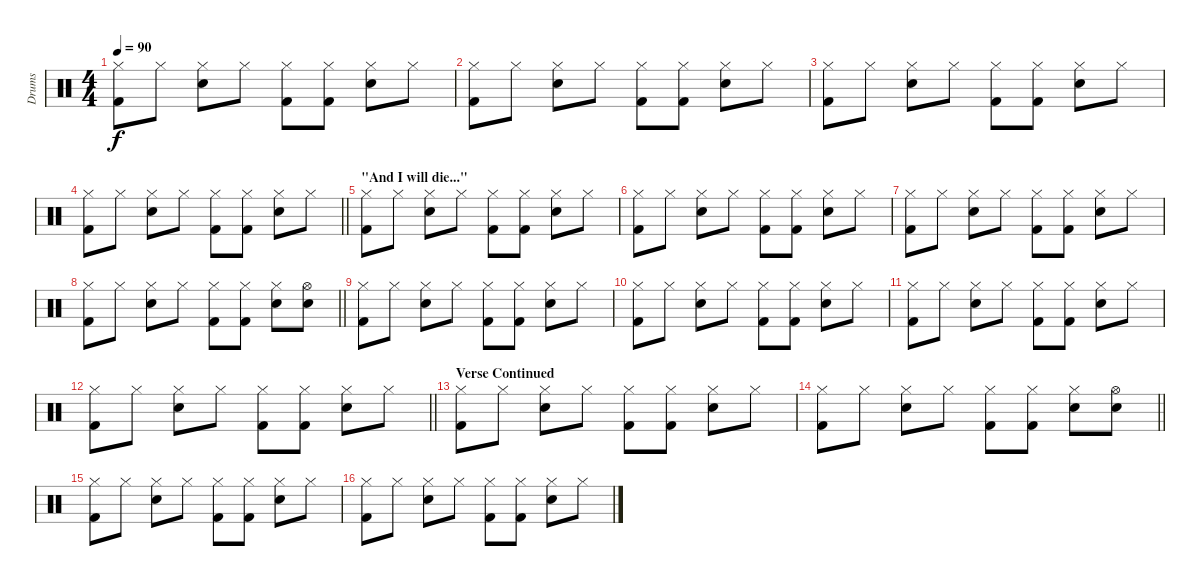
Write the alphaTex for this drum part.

\track ("Drums" "Drums") {instrument percussion}
\staff {score}
\articulation defaults
\ts (4 4)
\tempo 90
\clef neutral
\ks c
("Hi-Hat (closed)" "Kick (hit) 2").8{dy f} "Hi-Hat (closed)".8 ("Hi-Hat (closed)" "Electric Snare (hit)").8 "Hi-Hat (closed)".8 ("Hi-Hat (closed)" "Kick (hit) 2").8 ("Hi-Hat (closed)" "Kick (hit) 2").8 ("Hi-Hat (closed)" "Electric Snare (hit)").8 "Hi-Hat (closed)".8 |
("Hi-Hat (closed)" "Kick (hit) 2").8 "Hi-Hat (closed)".8 ("Hi-Hat (closed)" "Electric Snare (hit)").8 "Hi-Hat (closed)".8 ("Hi-Hat (closed)" "Kick (hit) 2").8 ("Hi-Hat (closed)" "Kick (hit) 2").8 ("Hi-Hat (closed)" "Electric Snare (hit)").8 "Hi-Hat (closed)".8 |
("Hi-Hat (closed)" "Kick (hit) 2").8 "Hi-Hat (closed)".8 ("Hi-Hat (closed)" "Electric Snare (hit)").8 "Hi-Hat (closed)".8 ("Hi-Hat (closed)" "Kick (hit) 2").8 ("Hi-Hat (closed)" "Kick (hit) 2").8 ("Hi-Hat (closed)" "Electric Snare (hit)").8 "Hi-Hat (closed)".8 |
\barLineRight lightlight
("Hi-Hat (closed)" "Kick (hit) 2").8 "Hi-Hat (closed)".8 ("Hi-Hat (closed)" "Electric Snare (hit)").8 "Hi-Hat (closed)".8 ("Hi-Hat (closed)" "Kick (hit) 2").8 ("Hi-Hat (closed)" "Kick (hit) 2").8 ("Hi-Hat (closed)" "Electric Snare (hit)").8 "Hi-Hat (closed)".8 |
\section ("" "\"And I will die...\"")
("Hi-Hat (closed)" "Kick (hit) 2").8 "Hi-Hat (closed)".8 ("Hi-Hat (closed)" "Electric Snare (hit)").8 "Hi-Hat (closed)".8 ("Hi-Hat (closed)" "Kick (hit) 2").8 ("Hi-Hat (closed)" "Kick (hit) 2").8 ("Hi-Hat (closed)" "Electric Snare (hit)").8 "Hi-Hat (closed)".8 |
("Hi-Hat (closed)" "Kick (hit) 2").8 "Hi-Hat (closed)".8 ("Hi-Hat (closed)" "Electric Snare (hit)").8 "Hi-Hat (closed)".8 ("Hi-Hat (closed)" "Kick (hit) 2").8 ("Hi-Hat (closed)" "Kick (hit) 2").8 ("Hi-Hat (closed)" "Electric Snare (hit)").8 "Hi-Hat (closed)".8 |
("Hi-Hat (closed)" "Kick (hit) 2").8 "Hi-Hat (closed)".8 ("Hi-Hat (closed)" "Electric Snare (hit)").8 "Hi-Hat (closed)".8 ("Hi-Hat (closed)" "Kick (hit) 2").8 ("Hi-Hat (closed)" "Kick (hit) 2").8 ("Hi-Hat (closed)" "Electric Snare (hit)").8 "Hi-Hat (closed)".8 |
\barLineRight lightlight
("Hi-Hat (closed)" "Kick (hit) 2").8 "Hi-Hat (closed)".8 ("Hi-Hat (closed)" "Electric Snare (hit)").8 "Hi-Hat (closed)".8 ("Hi-Hat (closed)" "Kick (hit) 2").8 ("Hi-Hat (closed)" "Kick (hit) 2").8 ("Hi-Hat (closed)" "Electric Snare (hit)").8 ("Hi-Hat (open)" "Electric Snare (hit)").8 |
("Hi-Hat (closed)" "Kick (hit) 2").8 "Hi-Hat (closed)".8 ("Hi-Hat (closed)" "Electric Snare (hit)").8 "Hi-Hat (closed)".8 ("Hi-Hat (closed)" "Kick (hit) 2").8 ("Hi-Hat (closed)" "Kick (hit) 2").8 ("Hi-Hat (closed)" "Electric Snare (hit)").8 "Hi-Hat (closed)".8 |
("Hi-Hat (closed)" "Kick (hit) 2").8 "Hi-Hat (closed)".8 ("Hi-Hat (closed)" "Electric Snare (hit)").8 "Hi-Hat (closed)".8 ("Hi-Hat (closed)" "Kick (hit) 2").8 ("Hi-Hat (closed)" "Kick (hit) 2").8 ("Hi-Hat (closed)" "Electric Snare (hit)").8 "Hi-Hat (closed)".8 |
("Hi-Hat (closed)" "Kick (hit) 2").8 "Hi-Hat (closed)".8 ("Hi-Hat (closed)" "Electric Snare (hit)").8 "Hi-Hat (closed)".8 ("Hi-Hat (closed)" "Kick (hit) 2").8 ("Hi-Hat (closed)" "Kick (hit) 2").8 ("Hi-Hat (closed)" "Electric Snare (hit)").8 "Hi-Hat (closed)".8 |
\barLineRight lightlight
("Hi-Hat (closed)" "Kick (hit) 2").8 "Hi-Hat (closed)".8 ("Hi-Hat (closed)" "Electric Snare (hit)").8 "Hi-Hat (closed)".8 ("Hi-Hat (closed)" "Kick (hit) 2").8 ("Hi-Hat (closed)" "Kick (hit) 2").8 ("Hi-Hat (closed)" "Electric Snare (hit)").8 "Hi-Hat (closed)".8 |
\section ("" "Verse Continued")
("Hi-Hat (closed)" "Kick (hit) 2").8 "Hi-Hat (closed)".8 ("Hi-Hat (closed)" "Electric Snare (hit)").8 "Hi-Hat (closed)".8 ("Hi-Hat (closed)" "Kick (hit) 2").8 ("Hi-Hat (closed)" "Kick (hit) 2").8 ("Hi-Hat (closed)" "Electric Snare (hit)").8 "Hi-Hat (closed)".8 |
\barLineRight lightlight
("Hi-Hat (closed)" "Kick (hit) 2").8 "Hi-Hat (closed)".8 ("Hi-Hat (closed)" "Electric Snare (hit)").8 "Hi-Hat (closed)".8 ("Hi-Hat (closed)" "Kick (hit) 2").8 ("Hi-Hat (closed)" "Kick (hit) 2").8 ("Hi-Hat (closed)" "Electric Snare (hit)").8 ("Hi-Hat (open)" "Electric Snare (hit)").8 |
("Hi-Hat (closed)" "Kick (hit) 2").8 "Hi-Hat (closed)".8 ("Hi-Hat (closed)" "Electric Snare (hit)").8 "Hi-Hat (closed)".8 ("Hi-Hat (closed)" "Kick (hit) 2").8 ("Hi-Hat (closed)" "Kick (hit) 2").8 ("Hi-Hat (closed)" "Electric Snare (hit)").8 "Hi-Hat (closed)".8 |
("Hi-Hat (closed)" "Kick (hit) 2").8 "Hi-Hat (closed)".8 ("Hi-Hat (closed)" "Electric Snare (hit)").8 "Hi-Hat (closed)".8 ("Hi-Hat (closed)" "Kick (hit) 2").8 ("Hi-Hat (closed)" "Kick (hit) 2").8 ("Hi-Hat (closed)" "Electric Snare (hit)").8 "Hi-Hat (closed)".8
